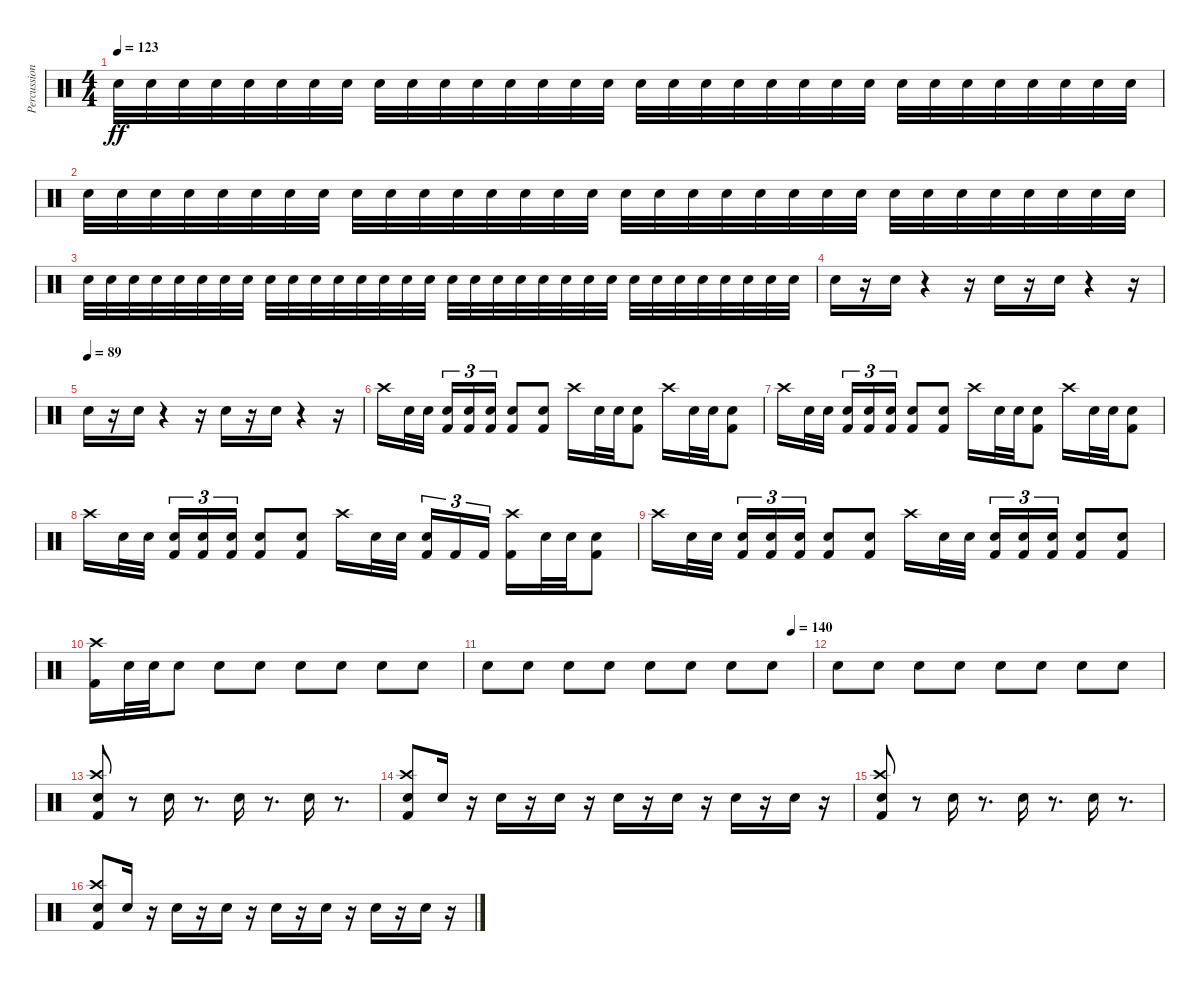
\track ("Percussion" "Percussion") {instrument percussion}
\staff {score}
\articulation defaults
\ts (4 4)
\tempo 123
\clef neutral
\ks c "Snare (hit) 2".32{dy ff} "Snare (hit) 2".32 "Snare (hit) 2".32 "Snare (hit) 2".32 "Snare (hit) 2".32 "Snare (hit) 2".32 "Snare (hit) 2".32 "Snare (hit) 2".32 "Snare (hit) 2".32 "Snare (hit) 2".32 "Snare (hit) 2".32 "Snare (hit) 2".32 "Snare (hit) 2".32 "Snare (hit) 2".32 "Snare (hit) 2".32 "Snare (hit) 2".32 "Snare (hit) 2".32 "Snare (hit) 2".32 "Snare (hit) 2".32 "Snare (hit) 2".32 "Snare (hit) 2".32 "Snare (hit) 2".32 "Snare (hit) 2".32 "Snare (hit) 2".32 "Snare (hit) 2".32 "Snare (hit) 2".32 "Snare (hit) 2".32 "Snare (hit) 2".32 "Snare (hit) 2".32 "Snare (hit) 2".32 "Snare (hit) 2".32 "Snare (hit) 2".32
|
"Snare (hit) 2".32 "Snare (hit) 2".32 "Snare (hit) 2".32 "Snare (hit) 2".32 "Snare (hit) 2".32 "Snare (hit) 2".32 "Snare (hit) 2".32 "Snare (hit) 2".32 "Snare (hit) 2".32 "Snare (hit) 2".32 "Snare (hit) 2".32 "Snare (hit) 2".32 "Snare (hit) 2".32 "Snare (hit) 2".32 "Snare (hit) 2".32 "Snare (hit) 2".32 "Snare (hit) 2".32 "Snare (hit) 2".32 "Snare (hit) 2".32 "Snare (hit) 2".32 "Snare (hit) 2".32 "Snare (hit) 2".32 "Snare (hit) 2".32 "Snare (hit) 2".32 "Snare (hit) 2".32 "Snare (hit) 2".32 "Snare (hit) 2".32 "Snare (hit) 2".32 "Snare (hit) 2".32 "Snare (hit) 2".32 "Snare (hit) 2".32 "Snare (hit) 2".32 |
"Snare (hit) 2".32 "Snare (hit) 2".32 "Snare (hit) 2".32 "Snare (hit) 2".32 "Snare (hit) 2".32 "Snare (hit) 2".32 "Snare (hit) 2".32 "Snare (hit) 2".32 "Snare (hit) 2".32 "Snare (hit) 2".32 "Snare (hit) 2".32 "Snare (hit) 2".32 "Snare (hit) 2".32 "Snare (hit) 2".32 "Snare (hit) 2".32 "Snare (hit) 2".32 "Snare (hit) 2".32 "Snare (hit) 2".32 "Snare (hit) 2".32 "Snare (hit) 2".32 "Snare (hit) 2".32 "Snare (hit) 2".32 "Snare (hit) 2".32 "Snare (hit) 2".32 "Snare (hit) 2".32 "Snare (hit) 2".32 "Snare (hit) 2".32 "Snare (hit) 2".32 "Snare (hit) 2".32 "Snare (hit) 2".32 "Snare (hit) 2".32 "Snare (hit) 2".32 |
"Snare (hit) 2".16 r.16 "Snare (hit) 2".16 r.4 r.16 "Snare (hit) 2".16 r.16 "Snare (hit) 2".16 r.4 r.16 |
\tempo (89)
"Snare (hit) 2".16 r.16 "Snare (hit) 2".16 r.4 r.16 "Snare (hit) 2".16 r.16 "Snare (hit) 2".16 r.4 r.16 |
"Crash high (hit)".16 "Snare (hit) 2".32 "Snare (hit) 2".32{beam splitsecondary} ("Snare (hit) 2" "Kick (hit) 2").16{tu (3 2)} ("Snare (hit) 2" "Kick (hit) 2").16{tu (3 2)} ("Snare (hit) 2" "Kick (hit) 2").16{tu (3 2)} ("Snare (hit) 2" "Kick (hit) 2").8 ("Snare (hit) 2" "Kick (hit) 2").8 "Crash high (hit)".16 "Snare (hit) 2".32 "Snare (hit) 2".32 ("Snare (hit) 2" "Kick (hit) 2").8 "Crash high (hit)".16 "Snare (hit) 2".32 "Snare (hit) 2".32 ("Snare (hit) 2" "Kick (hit) 2").8 |
"Crash high (hit)".16 "Snare (hit) 2".32 "Snare (hit) 2".32{beam splitsecondary} ("Snare (hit) 2" "Kick (hit) 2").16{tu (3 2)} ("Snare (hit) 2" "Kick (hit) 2").16{tu (3 2)} ("Snare (hit) 2" "Kick (hit) 2").16{tu (3 2)} ("Snare (hit) 2" "Kick (hit) 2").8 ("Snare (hit) 2" "Kick (hit) 2").8 "Crash high (hit)".16 "Snare (hit) 2".32 "Snare (hit) 2".32 ("Snare (hit) 2" "Kick (hit) 2").8 "Crash high (hit)".16 "Snare (hit) 2".32 "Snare (hit) 2".32 ("Snare (hit) 2" "Kick (hit) 2").8 |
"Crash high (hit)".16 "Snare (hit) 2".32 "Snare (hit) 2".32{beam splitsecondary} ("Snare (hit) 2" "Kick (hit) 2").16{tu (3 2)} ("Snare (hit) 2" "Kick (hit) 2").16{tu (3 2)} ("Snare (hit) 2" "Kick (hit) 2").16{tu (3 2)} ("Snare (hit) 2" "Kick (hit) 2").8 ("Snare (hit) 2" "Kick (hit) 2").8 "Crash high (hit)".16 "Snare (hit) 2".32 "Snare (hit) 2".32{beam splitsecondary} ("Snare (hit) 2" "Kick (hit) 2").16{tu (3 2)} "Kick (hit) 2".16{tu (3 2)} "Kick (hit) 2".16{tu (3 2)} ("Crash high (hit)" "Kick (hit) 2").16 "Snare (hit) 2".32 "Snare (hit) 2".32 ("Snare (hit) 2" "Kick (hit) 2").8 |
"Crash high (hit)".16 "Snare (hit) 2".32 "Snare (hit) 2".32{beam splitsecondary} ("Snare (hit) 2" "Kick (hit) 2").16{tu (3 2)} ("Snare (hit) 2" "Kick (hit) 2").16{tu (3 2)} ("Snare (hit) 2" "Kick (hit) 2").16{tu (3 2)} ("Snare (hit) 2" "Kick (hit) 2").8 ("Snare (hit) 2" "Kick (hit) 2").8 "Crash high (hit)".16 "Snare (hit) 2".32 "Snare (hit) 2".32{beam splitsecondary} ("Snare (hit) 2" "Kick (hit) 2").16{tu (3 2)} ("Snare (hit) 2" "Kick (hit) 2").16{tu (3 2)} ("Snare (hit) 2" "Kick (hit) 2").16{tu (3 2)} ("Snare (hit) 2" "Kick (hit) 2").8 ("Snare (hit) 2" "Kick (hit) 2").8 |
("Crash high (hit)" "Kick (hit) 2").16 "Snare (hit) 2".32 "Snare (hit) 2".32 "Snare (hit) 2".8 "Snare (hit) 2".8 "Snare (hit) 2".8 "Snare (hit) 2".8 "Snare (hit) 2".8 "Snare (hit) 2".8 "Snare (hit) 2".8 |
\tempo (140 0.9375)
"Snare (hit) 2".8 "Snare (hit) 2".8 "Snare (hit) 2".8 "Snare (hit) 2".8 "Snare (hit) 2".8 "Snare (hit) 2".8 "Snare (hit) 2".8 "Snare (hit) 2".8 |
"Snare (hit) 2".8 "Snare (hit) 2".8 "Snare (hit) 2".8 "Snare (hit) 2".8 "Snare (hit) 2".8 "Snare (hit) 2".8 "Snare (hit) 2".8 "Snare (hit) 2".8 |
("Kick (hit) 2" "Crash high (hit)" "Snare (hit) 2").8 r.8 "Snare (hit) 2".16 r.8{d} "Snare (hit) 2".16 r.8{d} "Snare (hit) 2".16 r.8{d} |
("Crash high (hit)" "Kick (hit) 2" "Snare (hit) 2").8 "Snare (hit) 2".16 r.16 "Snare (hit) 2".16 r.16 "Snare (hit) 2".16 r.16 "Snare (hit) 2".16 r.16 "Snare (hit) 2".16 r.16 "Snare (hit) 2".16 r.16 "Snare (hit) 2".16 r.16 |
("Kick (hit) 2" "Crash high (hit)" "Snare (hit) 2").8 r.8 "Snare (hit) 2".16 r.8{d} "Snare (hit) 2".16 r.8{d} "Snare (hit) 2".16 r.8{d} |
("Kick (hit) 2" "Crash high (hit)" "Snare (hit) 2").8 "Snare (hit) 2".16 r.16 "Snare (hit) 2".16 r.16 "Snare (hit) 2".16 r.16 "Snare (hit) 2".16 r.16 "Snare (hit) 2".16 r.16 "Snare (hit) 2".16 r.16 "Snare (hit) 2".16 r.16
